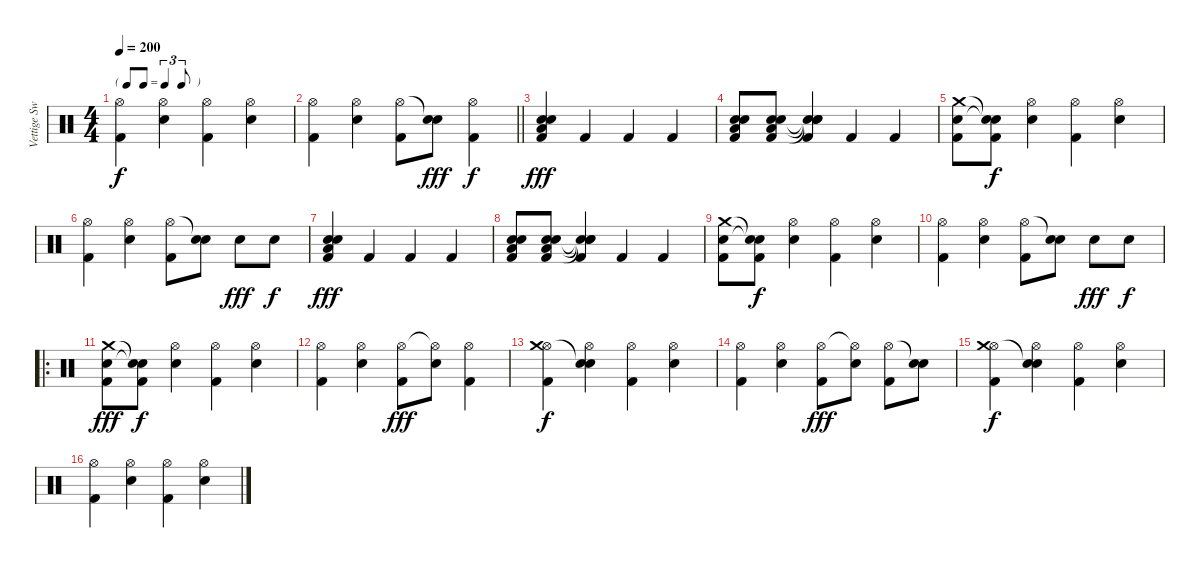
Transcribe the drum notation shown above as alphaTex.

\track ("Vettige Swa" "Vettige Sw") {instrument percussion}
\staff {score}
\articulation defaults
\ts (4 4)
\tf triplet8th
\tempo 200
\clef neutral
\ks c
("Hi-Hat (open)" "Kick (hit) 2").4{dy f} ("Hi-Hat (open)" "Electric Snare (hit)").4 ("Hi-Hat (open)" "Kick (hit) 2").4 ("Hi-Hat (open)" "Electric Snare (hit)").4 |
\barLineRight lightlight
("Hi-Hat (open)" "Kick (hit) 2").4 ("Hi-Hat (open)" "Electric Snare (hit)").4 ("Hi-Hat (open)" "Kick (hit) 2").8 ("Snare (hit)"{t} "Electric Snare (hit)").8{dy fff} ("Hi-Hat (open)" "Kick (hit) 2").4{dy f} |
("Electric Snare (hit)" "Electric Snare (hit)" "Kick (hit) 2" "Low Floor Tom (hit)").4{dy fff} "Kick (hit) 2".4 "Kick (hit) 2".4 "Kick (hit) 2".4 |
("Electric Snare (hit)" "Electric Snare (hit)" "Kick (hit) 2" "Low Floor Tom (hit)").8 ("Electric Snare (hit)" "Electric Snare (hit)" "Kick (hit) 2" "Low Floor Tom (hit)").8 ("Kick (hit) 2" "Snare (hit)"{t} "Snare (hit)"{t} "Snare (hit)"{t}).4 "Kick (hit) 2".4 "Kick (hit) 2".4 |
("Electric Snare (hit)" "Kick (hit) 2" "Crash medium (hit)").8 ("Snare (hit)"{t} "Kick (hit) 2" "Snare (hit)"{t}).8{dy f} ("Hi-Hat (open)" "Electric Snare (hit)").4 ("Hi-Hat (open)" "Kick (hit) 2").4 ("Hi-Hat (open)" "Electric Snare (hit)").4 |
("Hi-Hat (open)" "Kick (hit) 2").4 ("Hi-Hat (open)" "Electric Snare (hit)").4 ("Hi-Hat (open)" "Kick (hit) 2").8 ("Snare (hit)"{t} "Electric Snare (hit)").8 "Electric Snare (hit)".8{dy fff} "Electric Snare (hit)".8{dy f} |
("Electric Snare (hit)" "Electric Snare (hit)" "Kick (hit) 2" "Low Floor Tom (hit)").4{dy fff} "Kick (hit) 2".4 "Kick (hit) 2".4 "Kick (hit) 2".4 |
("Electric Snare (hit)" "Electric Snare (hit)" "Kick (hit) 2" "Low Floor Tom (hit)").8 ("Electric Snare (hit)" "Electric Snare (hit)" "Kick (hit) 2" "Low Floor Tom (hit)").8 ("Kick (hit) 2" "Snare (hit)"{t} "Snare (hit)"{t} "Snare (hit)"{t}).4 "Kick (hit) 2".4 "Kick (hit) 2".4 |
("Electric Snare (hit)" "Kick (hit) 2" "Crash medium (hit)").8 ("Snare (hit)"{t} "Kick (hit) 2" "Snare (hit)"{t}).8{dy f} ("Hi-Hat (open)" "Electric Snare (hit)").4 ("Hi-Hat (open)" "Kick (hit) 2").4 ("Hi-Hat (open)" "Electric Snare (hit)").4 |
("Hi-Hat (open)" "Kick (hit) 2").4 ("Hi-Hat (open)" "Electric Snare (hit)").4 ("Hi-Hat (open)" "Kick (hit) 2").8 ("Snare (hit)"{t} "Electric Snare (hit)").8 "Electric Snare (hit)".8{dy fff} "Electric Snare (hit)".8{dy f} |
\ro
("Electric Snare (hit)" "Kick (hit) 2" "Crash medium (hit)").8{dy fff} ("Snare (hit)"{t} "Kick (hit) 2" "Snare (hit)"{t}).8{dy f} ("Hi-Hat (open)" "Electric Snare (hit)").4 ("Hi-Hat (open)" "Kick (hit) 2").4 ("Hi-Hat (open)" "Electric Snare (hit)").4 |
("Hi-Hat (open)" "Kick (hit) 2").4 ("Hi-Hat (open)" "Electric Snare (hit)").4 ("Hi-Hat (open)" "Kick (hit) 2").8{dy fff} ("Hi-Hat (open)"{t} "Electric Snare (hit)").8 ("Hi-Hat (open)" "Kick (hit) 2").4 |
("Hi-Hat (open)" "Kick (hit) 2" "Crash medium (hit)").4{dy f} ("Hi-Hat (open)" "Electric Snare (hit)" "Snare (hit)"{t}).4 ("Hi-Hat (open)" "Kick (hit) 2").4 ("Hi-Hat (open)" "Electric Snare (hit)").4 |
("Hi-Hat (open)" "Kick (hit) 2").4 ("Hi-Hat (open)" "Electric Snare (hit)").4 ("Hi-Hat (open)" "Kick (hit) 2").8{dy fff} ("Hi-Hat (open)"{t} "Electric Snare (hit)").8 ("Hi-Hat (open)" "Kick (hit) 2").8 ("Snare (hit)"{t} "Electric Snare (hit)").8 |
("Hi-Hat (open)" "Kick (hit) 2" "Crash medium (hit)").4{dy f} ("Hi-Hat (open)" "Electric Snare (hit)" "Snare (hit)"{t}).4 ("Hi-Hat (open)" "Kick (hit) 2").4 ("Hi-Hat (open)" "Electric Snare (hit)").4 |
("Hi-Hat (open)" "Kick (hit) 2").4 ("Hi-Hat (open)" "Electric Snare (hit)").4 ("Hi-Hat (open)" "Kick (hit) 2").4 ("Hi-Hat (open)" "Electric Snare (hit)").4
